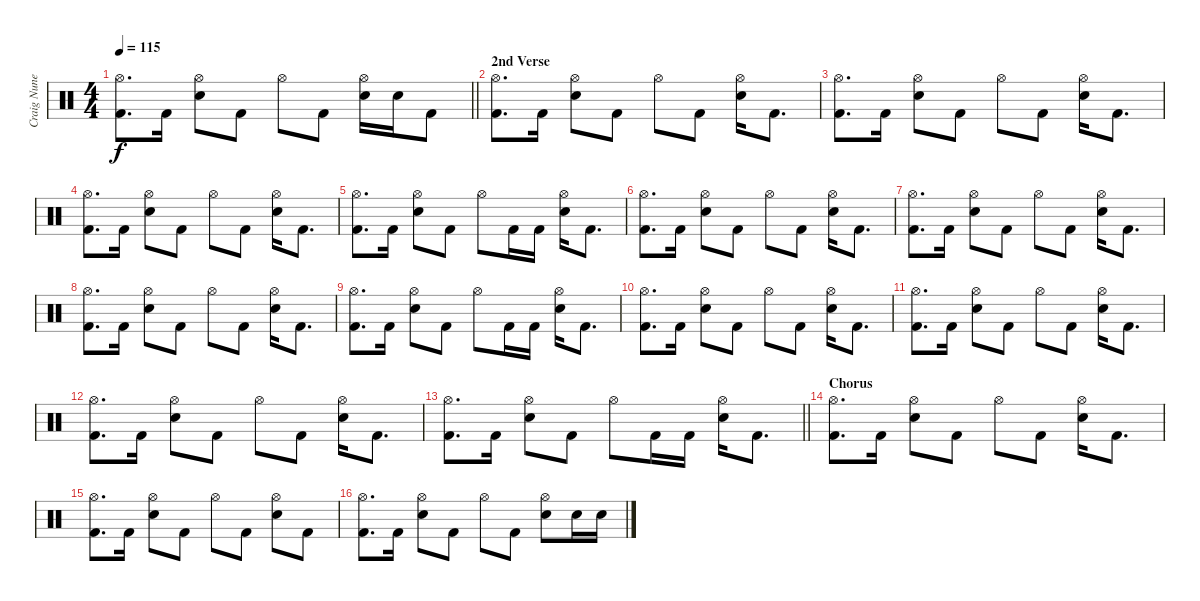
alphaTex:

\track ("Craig Nunenmacher" "Craig Nune") {instrument percussion}
\staff {score}
\articulation defaults
\ts (4 4)
\tempo 115
\clef neutral
\barLineRight lightlight
\ks c
("Hi-Hat (open)" "Kick (hit) 2").8{d dy f} "Kick (hit) 2".16 ("Hi-Hat (open)" "Snare (hit) 2").8 "Kick (hit) 2".8 "Hi-Hat (open)".8 "Kick (hit) 2".8 ("Hi-Hat (open)" "Snare (hit) 2").16 "Snare (hit) 2".16 "Kick (hit) 2".8 |
\section ("" "2nd Verse")
("Hi-Hat (open)" "Kick (hit) 2").8{d} "Kick (hit) 2".16 ("Hi-Hat (open)" "Snare (hit) 2").8 "Kick (hit) 2".8 "Hi-Hat (open)".8 "Kick (hit) 2".8 ("Hi-Hat (open)" "Snare (hit) 2").16 "Kick (hit) 2".8{d} |
("Hi-Hat (open)" "Kick (hit) 2").8{d} "Kick (hit) 2".16 ("Hi-Hat (open)" "Snare (hit) 2").8 "Kick (hit) 2".8 "Hi-Hat (open)".8 "Kick (hit) 2".8 ("Hi-Hat (open)" "Snare (hit) 2").16 "Kick (hit) 2".8{d} |
("Hi-Hat (open)" "Kick (hit) 2").8{d} "Kick (hit) 2".16 ("Hi-Hat (open)" "Snare (hit) 2").8 "Kick (hit) 2".8 "Hi-Hat (open)".8 "Kick (hit) 2".8 ("Hi-Hat (open)" "Snare (hit) 2").16 "Kick (hit) 2".8{d} |
("Hi-Hat (open)" "Kick (hit) 2").8{d} "Kick (hit) 2".16 ("Hi-Hat (open)" "Snare (hit) 2").8 "Kick (hit) 2".8 "Hi-Hat (open)".8 "Kick (hit) 2".16 "Kick (hit) 2".16 ("Hi-Hat (open)" "Snare (hit) 2").16 "Kick (hit) 2".8{d} |
("Hi-Hat (open)" "Kick (hit) 2").8{d} "Kick (hit) 2".16 ("Hi-Hat (open)" "Snare (hit) 2").8 "Kick (hit) 2".8 "Hi-Hat (open)".8 "Kick (hit) 2".8 ("Hi-Hat (open)" "Snare (hit) 2").16 "Kick (hit) 2".8{d} |
("Hi-Hat (open)" "Kick (hit) 2").8{d} "Kick (hit) 2".16 ("Hi-Hat (open)" "Snare (hit) 2").8 "Kick (hit) 2".8 "Hi-Hat (open)".8 "Kick (hit) 2".8 ("Hi-Hat (open)" "Snare (hit) 2").16 "Kick (hit) 2".8{d} |
("Hi-Hat (open)" "Kick (hit) 2").8{d} "Kick (hit) 2".16 ("Hi-Hat (open)" "Snare (hit) 2").8 "Kick (hit) 2".8 "Hi-Hat (open)".8 "Kick (hit) 2".8 ("Hi-Hat (open)" "Snare (hit) 2").16 "Kick (hit) 2".8{d} |
("Hi-Hat (open)" "Kick (hit) 2").8{d} "Kick (hit) 2".16 ("Hi-Hat (open)" "Snare (hit) 2").8 "Kick (hit) 2".8 "Hi-Hat (open)".8 "Kick (hit) 2".16 "Kick (hit) 2".16 ("Hi-Hat (open)" "Snare (hit) 2").16 "Kick (hit) 2".8{d} |
("Hi-Hat (open)" "Kick (hit) 2").8{d} "Kick (hit) 2".16 ("Hi-Hat (open)" "Snare (hit) 2").8 "Kick (hit) 2".8 "Hi-Hat (open)".8 "Kick (hit) 2".8 ("Hi-Hat (open)" "Snare (hit) 2").16 "Kick (hit) 2".8{d} |
("Hi-Hat (open)" "Kick (hit) 2").8{d} "Kick (hit) 2".16 ("Hi-Hat (open)" "Snare (hit) 2").8 "Kick (hit) 2".8 "Hi-Hat (open)".8 "Kick (hit) 2".8 ("Hi-Hat (open)" "Snare (hit) 2").16 "Kick (hit) 2".8{d} |
("Hi-Hat (open)" "Kick (hit) 2").8{d} "Kick (hit) 2".16 ("Hi-Hat (open)" "Snare (hit) 2").8 "Kick (hit) 2".8 "Hi-Hat (open)".8 "Kick (hit) 2".8 ("Hi-Hat (open)" "Snare (hit) 2").16 "Kick (hit) 2".8{d} |
\barLineRight lightlight
("Hi-Hat (open)" "Kick (hit) 2").8{d} "Kick (hit) 2".16 ("Hi-Hat (open)" "Snare (hit) 2").8 "Kick (hit) 2".8 "Hi-Hat (open)".8 "Kick (hit) 2".16 "Kick (hit) 2".16 ("Hi-Hat (open)" "Snare (hit) 2").16 "Kick (hit) 2".8{d} |
\section ("" "Chorus")
("Hi-Hat (open)" "Kick (hit) 2").8{d} "Kick (hit) 2".16 ("Hi-Hat (open)" "Snare (hit) 2").8 "Kick (hit) 2".8 "Hi-Hat (open)".8 "Kick (hit) 2".8 ("Hi-Hat (open)" "Snare (hit) 2").16 "Kick (hit) 2".8{d} |
("Hi-Hat (open)" "Kick (hit) 2").8{d} "Kick (hit) 2".16 ("Hi-Hat (open)" "Snare (hit) 2").8 "Kick (hit) 2".8 "Hi-Hat (open)".8 "Kick (hit) 2".8 ("Hi-Hat (open)" "Snare (hit) 2").8 "Kick (hit) 2".8 |
("Hi-Hat (open)" "Kick (hit) 2").8{d} "Kick (hit) 2".16 ("Hi-Hat (open)" "Snare (hit) 2").8 "Kick (hit) 2".8 "Hi-Hat (open)".8 "Kick (hit) 2".8 ("Hi-Hat (open)" "Snare (hit) 2").8 "Snare (hit) 2".16 "Snare (hit) 2".16
